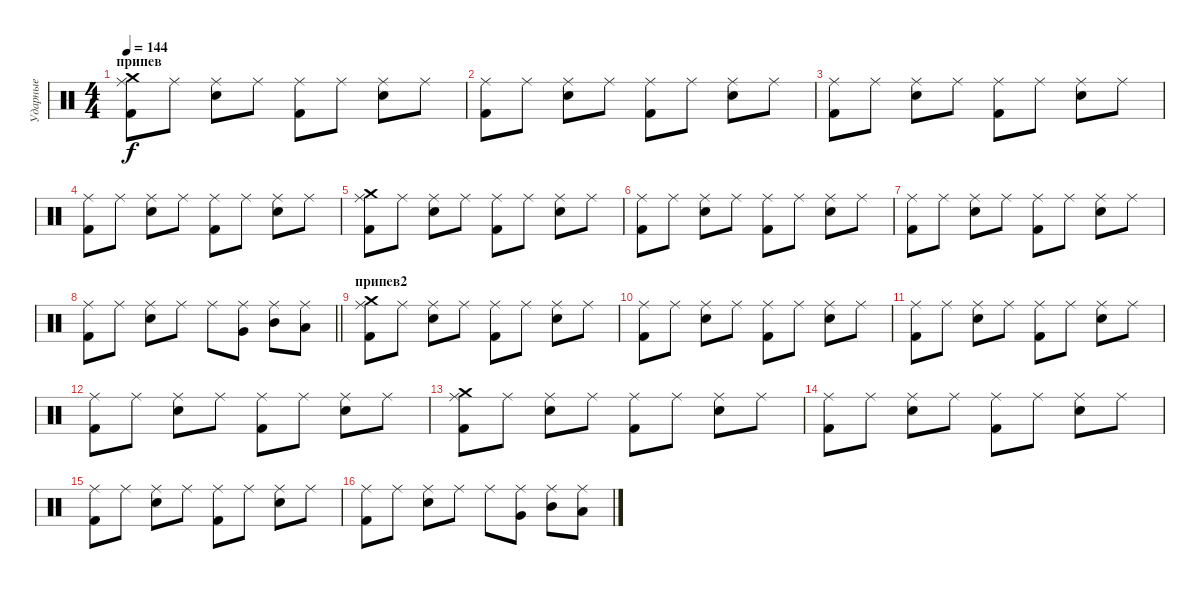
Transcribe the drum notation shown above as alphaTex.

\track ("Ударные" "Ударные") {instrument percussion}
\staff {score}
\articulation defaults
\ts (4 4)
\section ("" "припев")
\tempo 144
\clef neutral
\ks c
("Crash medium (hit)" "Ride (middle)" "Kick (hit) 2").8{dy f} "Ride (middle)".8 ("Ride (middle)" "Snare (hit) 2").8 "Ride (middle)".8 ("Ride (middle)" "Kick (hit) 2").8 "Ride (middle)".8 ("Ride (middle)" "Snare (hit) 2").8 "Ride (middle)".8 |
("Ride (middle)" "Kick (hit) 2").8 "Ride (middle)".8 ("Ride (middle)" "Snare (hit) 2").8 "Ride (middle)".8 ("Ride (middle)" "Kick (hit) 2").8 "Ride (middle)".8 ("Ride (middle)" "Snare (hit) 2").8 "Ride (middle)".8 |
("Ride (middle)" "Kick (hit) 2").8 "Ride (middle)".8 ("Ride (middle)" "Snare (hit) 2").8 "Ride (middle)".8 ("Ride (middle)" "Kick (hit) 2").8 "Ride (middle)".8 ("Ride (middle)" "Snare (hit) 2").8 "Ride (middle)".8 |
("Ride (middle)" "Kick (hit) 2").8 "Ride (middle)".8 ("Ride (middle)" "Snare (hit) 2").8 "Ride (middle)".8 ("Ride (middle)" "Kick (hit) 2").8 "Ride (middle)".8 ("Ride (middle)" "Snare (hit) 2").8 "Ride (middle)".8 |
("Crash medium (hit)" "Ride (middle)" "Kick (hit) 2").8 "Ride (middle)".8 ("Ride (middle)" "Snare (hit) 2").8 "Ride (middle)".8 ("Ride (middle)" "Kick (hit) 2").8 "Ride (middle)".8 ("Ride (middle)" "Snare (hit) 2").8 "Ride (middle)".8 |
("Ride (middle)" "Kick (hit) 2").8 "Ride (middle)".8 ("Ride (middle)" "Snare (hit) 2").8 "Ride (middle)".8 ("Ride (middle)" "Kick (hit) 2").8 "Ride (middle)".8 ("Ride (middle)" "Snare (hit) 2").8 "Ride (middle)".8 |
("Ride (middle)" "Kick (hit) 2").8 "Ride (middle)".8 ("Ride (middle)" "Snare (hit) 2").8 "Ride (middle)".8 ("Ride (middle)" "Kick (hit) 2").8 "Ride (middle)".8 ("Ride (middle)" "Snare (hit) 2").8 "Ride (middle)".8 |
\barLineRight lightlight
("Ride (middle)" "Kick (hit) 2").8 "Ride (middle)".8 ("Ride (middle)" "Snare (hit) 2").8 "Ride (middle)".8 "Ride (middle)".8 ("Very Low Tom (hit)" "Ride (middle)").8 ("Mid Tom (hit)" "Ride (middle)").8 ("Low Tom (hit)" "Ride (middle)").8 |
\section ("" "припев2")
("Crash medium (hit)" "Ride (middle)" "Kick (hit) 2").8 "Ride (middle)".8 ("Ride (middle)" "Snare (hit) 2").8 "Ride (middle)".8 ("Ride (middle)" "Kick (hit) 2").8 "Ride (middle)".8 ("Ride (middle)" "Snare (hit) 2").8 "Ride (middle)".8 |
("Ride (middle)" "Kick (hit) 2").8 "Ride (middle)".8 ("Ride (middle)" "Snare (hit) 2").8 "Ride (middle)".8 ("Ride (middle)" "Kick (hit) 2").8 "Ride (middle)".8 ("Ride (middle)" "Snare (hit) 2").8 "Ride (middle)".8 |
("Ride (middle)" "Kick (hit) 2").8 "Ride (middle)".8 ("Ride (middle)" "Snare (hit) 2").8 "Ride (middle)".8 ("Ride (middle)" "Kick (hit) 2").8 "Ride (middle)".8 ("Ride (middle)" "Snare (hit) 2").8 "Ride (middle)".8 |
("Ride (middle)" "Kick (hit) 2").8 "Ride (middle)".8 ("Ride (middle)" "Snare (hit) 2").8 "Ride (middle)".8 ("Ride (middle)" "Kick (hit) 2").8 "Ride (middle)".8 ("Ride (middle)" "Snare (hit) 2").8 "Ride (middle)".8 |
("Crash medium (hit)" "Ride (middle)" "Kick (hit) 2").8 "Ride (middle)".8 ("Ride (middle)" "Snare (hit) 2").8 "Ride (middle)".8 ("Ride (middle)" "Kick (hit) 2").8 "Ride (middle)".8 ("Ride (middle)" "Snare (hit) 2").8 "Ride (middle)".8 |
("Ride (middle)" "Kick (hit) 2").8 "Ride (middle)".8 ("Ride (middle)" "Snare (hit) 2").8 "Ride (middle)".8 ("Ride (middle)" "Kick (hit) 2").8 "Ride (middle)".8 ("Ride (middle)" "Snare (hit) 2").8 "Ride (middle)".8 |
("Ride (middle)" "Kick (hit) 2").8 "Ride (middle)".8 ("Ride (middle)" "Snare (hit) 2").8 "Ride (middle)".8 ("Ride (middle)" "Kick (hit) 2").8 "Ride (middle)".8 ("Ride (middle)" "Snare (hit) 2").8 "Ride (middle)".8 |
("Ride (middle)" "Kick (hit) 2").8 "Ride (middle)".8 ("Ride (middle)" "Snare (hit) 2").8 "Ride (middle)".8 "Ride (middle)".8 ("Very Low Tom (hit)" "Ride (middle)").8 ("Mid Tom (hit)" "Ride (middle)").8 ("Low Tom (hit)" "Ride (middle)").8
